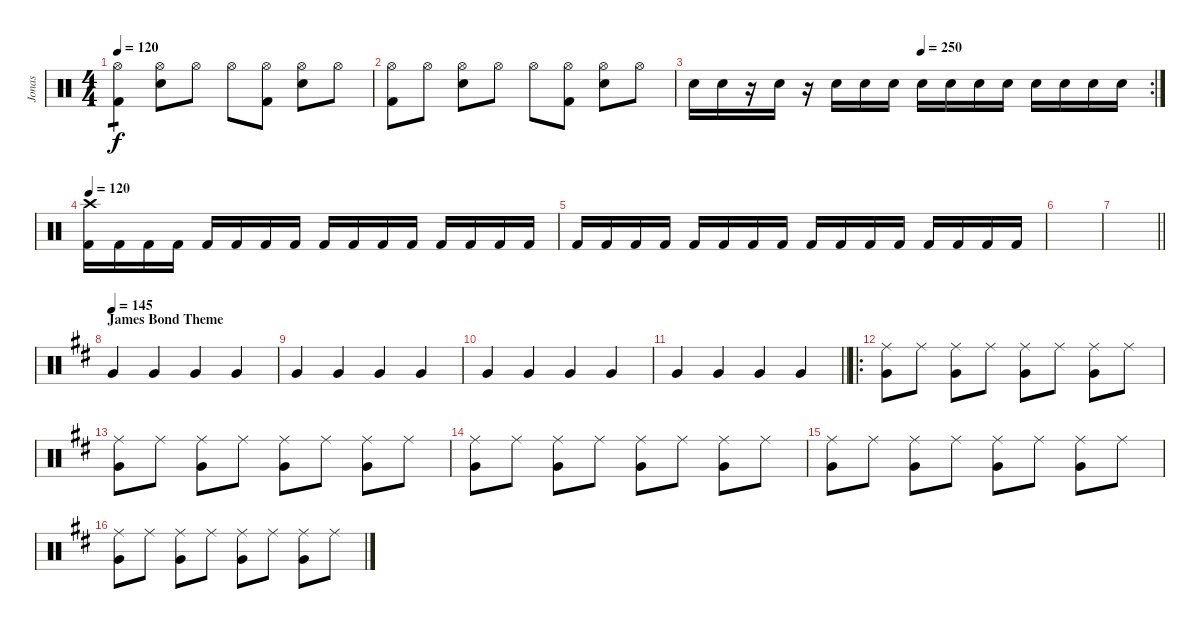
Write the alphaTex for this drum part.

\track ("Jonas" "Jonas") {instrument percussion}
\staff {score}
\articulation defaults
\ts (4 4)
\tempo 120
\clef neutral
\ks c
("Hi-Hat (open)" "Kick (hit) 2").4{tp 1 dy f} ("Hi-Hat (open)" "Snare (hit) 2").8 "Hi-Hat (open)".8 "Hi-Hat (open)".8 ("Hi-Hat (open)" "Kick (hit) 2").8 ("Hi-Hat (open)" "Snare (hit) 2").8 "Hi-Hat (open)".8 |
("Hi-Hat (open)" "Kick (hit) 2").8 "Hi-Hat (open)".8 ("Hi-Hat (open)" "Snare (hit) 2").8 "Hi-Hat (open)".8 "Hi-Hat (open)".8 ("Hi-Hat (open)" "Kick (hit) 2").8 ("Hi-Hat (open)" "Snare (hit) 2").8 "Hi-Hat (open)".8 |
\rc 2
\tempo (250 0.5)
"Snare (hit) 2".16{volume 16} "Snare (hit) 2".16 r.16 "Snare (hit) 2".16 r.16 "Snare (hit) 2".16 "Snare (hit) 2".16 "Snare (hit) 2".16 "Snare (hit) 2".16 "Snare (hit) 2".16 "Snare (hit) 2".16 "Snare (hit) 2".16 "Snare (hit) 2".16 "Snare (hit) 2".16 "Snare (hit) 2".16 "Snare (hit) 2".16 |
\tempo 120
("Crash high (hit)" "Kick (hit) 2").16 "Kick (hit) 2".16 "Kick (hit) 2".16 "Kick (hit) 2".16 "Kick (hit) 2".16 "Kick (hit) 2".16 "Kick (hit) 2".16 "Kick (hit) 2".16 "Kick (hit) 2".16 "Kick (hit) 2".16 "Kick (hit) 2".16 "Kick (hit) 2".16 "Kick (hit) 2".16 "Kick (hit) 2".16 "Kick (hit) 2".16 "Kick (hit) 2".16 |
"Kick (hit) 2".16 "Kick (hit) 2".16 "Kick (hit) 2".16 "Kick (hit) 2".16 "Kick (hit) 2".16 "Kick (hit) 2".16 "Kick (hit) 2".16 "Kick (hit) 2".16 "Kick (hit) 2".16 "Kick (hit) 2".16 "Kick (hit) 2".16 "Kick (hit) 2".16 "Kick (hit) 2".16 "Kick (hit) 2".16 "Kick (hit) 2".16 "Kick (hit) 2".16 |
|
\barLineRight lightlight
|
\section ("" "James Bond Theme")
\tempo 145
\ks d "Very Low Tom (hit)".4 "Very Low Tom (hit)".4 "Very Low Tom (hit)".4 "Very Low Tom (hit)".4
|
"Very Low Tom (hit)".4 "Very Low Tom (hit)".4 "Very Low Tom (hit)".4 "Very Low Tom (hit)".4 |
"Very Low Tom (hit)".4 "Very Low Tom (hit)".4 "Very Low Tom (hit)".4 "Very Low Tom (hit)".4 |
\barLineRight lightlight "Very Low Tom (hit)".4 "Very Low Tom (hit)".4 "Very Low Tom (hit)".4 "Very Low Tom (hit)".4
|
\ro
("Very Low Tom (hit)" "Ride (middle)").8 "Ride (middle)".8 ("Very Low Tom (hit)" "Ride (middle)").8 "Ride (middle)".8 ("Very Low Tom (hit)" "Ride (middle)").8 "Ride (middle)".8 ("Very Low Tom (hit)" "Ride (middle)").8 "Ride (middle)".8 |
("Very Low Tom (hit)" "Ride (middle)").8 "Ride (middle)".8 ("Very Low Tom (hit)" "Ride (middle)").8 "Ride (middle)".8 ("Very Low Tom (hit)" "Ride (middle)").8 "Ride (middle)".8 ("Very Low Tom (hit)" "Ride (middle)").8 "Ride (middle)".8 |
("Very Low Tom (hit)" "Ride (middle)").8 "Ride (middle)".8 ("Very Low Tom (hit)" "Ride (middle)").8 "Ride (middle)".8 ("Very Low Tom (hit)" "Ride (middle)").8 "Ride (middle)".8 ("Very Low Tom (hit)" "Ride (middle)").8 "Ride (middle)".8 |
("Very Low Tom (hit)" "Ride (middle)").8 "Ride (middle)".8 ("Very Low Tom (hit)" "Ride (middle)").8 "Ride (middle)".8 ("Very Low Tom (hit)" "Ride (middle)").8 "Ride (middle)".8 ("Very Low Tom (hit)" "Ride (middle)").8 "Ride (middle)".8 |
("Very Low Tom (hit)" "Ride (middle)").8 "Ride (middle)".8 ("Very Low Tom (hit)" "Ride (middle)").8 "Ride (middle)".8 ("Very Low Tom (hit)" "Ride (middle)").8 "Ride (middle)".8 ("Very Low Tom (hit)" "Ride (middle)").8 "Ride (middle)".8
